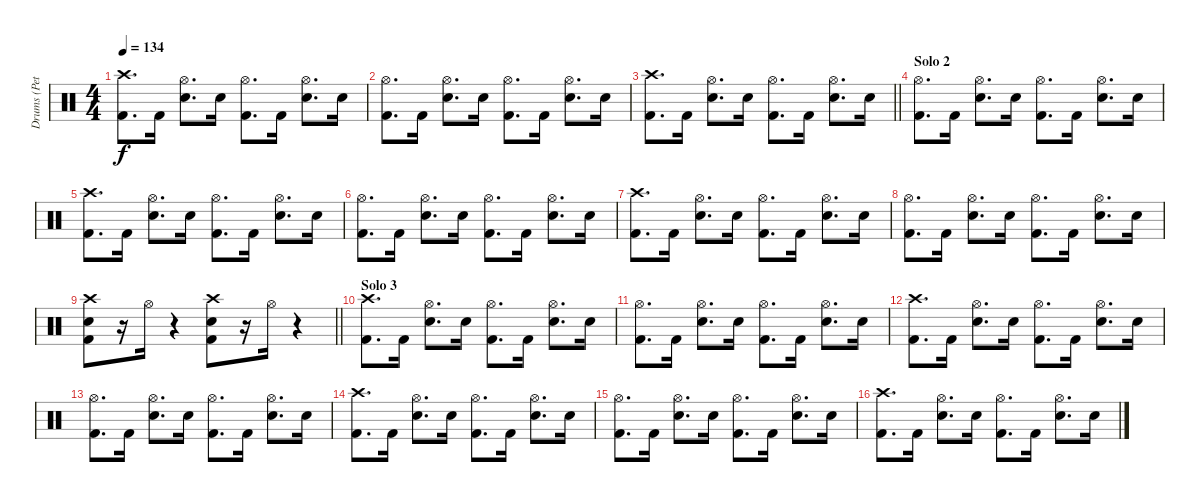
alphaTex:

\track ("Drums (Peter Criss)" "Drums (Pet") {instrument percussion}
\staff {score}
\articulation defaults
\ts (4 4)
\tempo 134
\clef neutral
\ks c
("Crash high (hit)" "Kick (hit) 2").8{d dy f} "Kick (hit) 2".16 ("Snare (hit) 2" "Hi-Hat (open)").8{d} "Snare (hit) 2".16 ("Hi-Hat (open)" "Kick (hit) 2").8{d} "Kick (hit) 2".16 ("Snare (hit) 2" "Hi-Hat (open)").8{d} "Snare (hit) 2".16 |
("Hi-Hat (open)" "Kick (hit) 2").8{d} "Kick (hit) 2".16 ("Snare (hit) 2" "Hi-Hat (open)").8{d} "Snare (hit) 2".16 ("Hi-Hat (open)" "Kick (hit) 2").8{d} "Kick (hit) 2".16 ("Snare (hit) 2" "Hi-Hat (open)").8{d} "Snare (hit) 2".16 |
\barLineRight lightlight
("Crash high (hit)" "Kick (hit) 2").8{d} "Kick (hit) 2".16 ("Snare (hit) 2" "Hi-Hat (open)").8{d} "Snare (hit) 2".16 ("Hi-Hat (open)" "Kick (hit) 2").8{d} "Kick (hit) 2".16 ("Snare (hit) 2" "Hi-Hat (open)").8{d} "Snare (hit) 2".16 |
\section ("" "Solo 2")
("Hi-Hat (open)" "Kick (hit) 2").8{d} "Kick (hit) 2".16 ("Snare (hit) 2" "Hi-Hat (open)").8{d} "Snare (hit) 2".16 ("Hi-Hat (open)" "Kick (hit) 2").8{d} "Kick (hit) 2".16 ("Snare (hit) 2" "Hi-Hat (open)").8{d} "Snare (hit) 2".16 |
("Crash high (hit)" "Kick (hit) 2").8{d} "Kick (hit) 2".16 ("Snare (hit) 2" "Hi-Hat (open)").8{d} "Snare (hit) 2".16 ("Hi-Hat (open)" "Kick (hit) 2").8{d} "Kick (hit) 2".16 ("Snare (hit) 2" "Hi-Hat (open)").8{d} "Snare (hit) 2".16 |
("Hi-Hat (open)" "Kick (hit) 2").8{d} "Kick (hit) 2".16 ("Snare (hit) 2" "Hi-Hat (open)").8{d} "Snare (hit) 2".16 ("Hi-Hat (open)" "Kick (hit) 2").8{d} "Kick (hit) 2".16 ("Snare (hit) 2" "Hi-Hat (open)").8{d} "Snare (hit) 2".16 |
("Crash high (hit)" "Kick (hit) 2").8{d} "Kick (hit) 2".16 ("Snare (hit) 2" "Hi-Hat (open)").8{d} "Snare (hit) 2".16 ("Hi-Hat (open)" "Kick (hit) 2").8{d} "Kick (hit) 2".16 ("Snare (hit) 2" "Hi-Hat (open)").8{d} "Snare (hit) 2".16 |
("Hi-Hat (open)" "Kick (hit) 2").8{d} "Kick (hit) 2".16 ("Snare (hit) 2" "Hi-Hat (open)").8{d} "Snare (hit) 2".16 ("Hi-Hat (open)" "Kick (hit) 2").8{d} "Kick (hit) 2".16 ("Snare (hit) 2" "Hi-Hat (open)").8{d} "Snare (hit) 2".16 |
\barLineRight lightlight
("Snare (hit) 2" "Crash high (hit)" "Kick (hit) 2").8 r.16 "Hi-Hat (open)".16 r.4 ("Snare (hit) 2" "Crash high (hit)" "Kick (hit) 2").8 r.16 "Hi-Hat (open)".16 r.4 |
\section ("" "Solo 3")
("Crash high (hit)" "Kick (hit) 2").8{d} "Kick (hit) 2".16 ("Snare (hit) 2" "Hi-Hat (open)").8{d} "Snare (hit) 2".16 ("Hi-Hat (open)" "Kick (hit) 2").8{d} "Kick (hit) 2".16 ("Snare (hit) 2" "Hi-Hat (open)").8{d} "Snare (hit) 2".16 |
("Hi-Hat (open)" "Kick (hit) 2").8{d} "Kick (hit) 2".16 ("Snare (hit) 2" "Hi-Hat (open)").8{d} "Snare (hit) 2".16 ("Hi-Hat (open)" "Kick (hit) 2").8{d} "Kick (hit) 2".16 ("Snare (hit) 2" "Hi-Hat (open)").8{d} "Snare (hit) 2".16 |
("Crash high (hit)" "Kick (hit) 2").8{d} "Kick (hit) 2".16 ("Snare (hit) 2" "Hi-Hat (open)").8{d} "Snare (hit) 2".16 ("Hi-Hat (open)" "Kick (hit) 2").8{d} "Kick (hit) 2".16 ("Snare (hit) 2" "Hi-Hat (open)").8{d} "Snare (hit) 2".16 |
("Hi-Hat (open)" "Kick (hit) 2").8{d} "Kick (hit) 2".16 ("Snare (hit) 2" "Hi-Hat (open)").8{d} "Snare (hit) 2".16 ("Hi-Hat (open)" "Kick (hit) 2").8{d} "Kick (hit) 2".16 ("Snare (hit) 2" "Hi-Hat (open)").8{d} "Snare (hit) 2".16 |
("Crash high (hit)" "Kick (hit) 2").8{d} "Kick (hit) 2".16 ("Snare (hit) 2" "Hi-Hat (open)").8{d} "Snare (hit) 2".16 ("Hi-Hat (open)" "Kick (hit) 2").8{d} "Kick (hit) 2".16 ("Snare (hit) 2" "Hi-Hat (open)").8{d} "Snare (hit) 2".16 |
("Hi-Hat (open)" "Kick (hit) 2").8{d} "Kick (hit) 2".16 ("Snare (hit) 2" "Hi-Hat (open)").8{d} "Snare (hit) 2".16 ("Hi-Hat (open)" "Kick (hit) 2").8{d} "Kick (hit) 2".16 ("Snare (hit) 2" "Hi-Hat (open)").8{d} "Snare (hit) 2".16 |
("Crash high (hit)" "Kick (hit) 2").8{d} "Kick (hit) 2".16 ("Snare (hit) 2" "Hi-Hat (open)").8{d} "Snare (hit) 2".16 ("Hi-Hat (open)" "Kick (hit) 2").8{d} "Kick (hit) 2".16 ("Snare (hit) 2" "Hi-Hat (open)").8{d} "Snare (hit) 2".16
